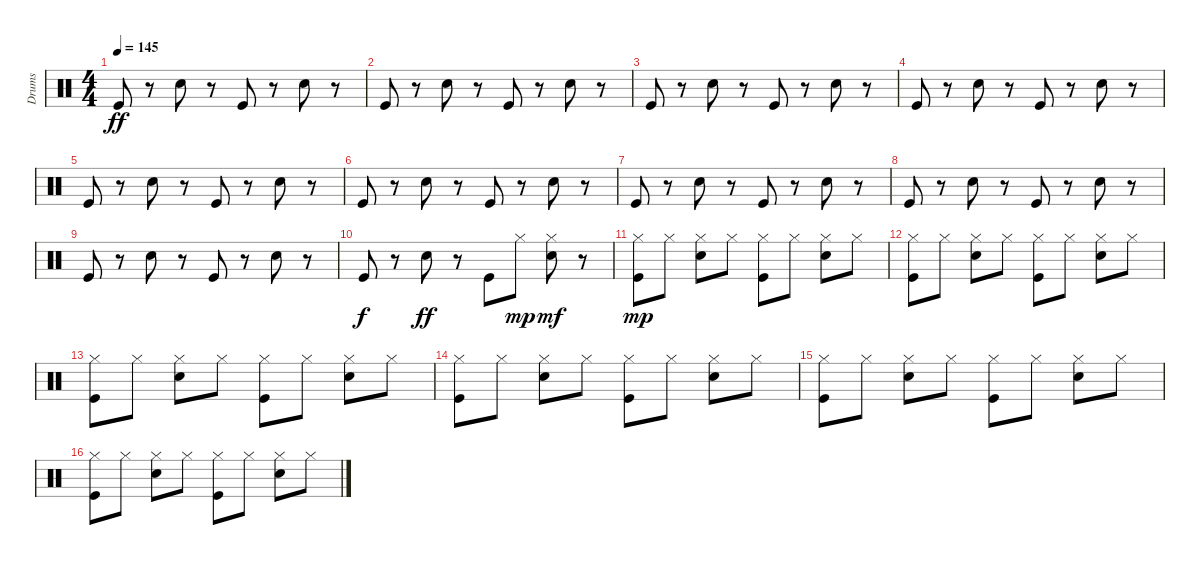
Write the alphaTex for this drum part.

\track ("Drums" "Drums") {instrument percussion}
\staff {score}
\articulation defaults
\ts (4 4)
\tempo 145
\clef neutral
\ks c "Kick (hit)".8{dy ff}
r.8 "Snare (hit) 2".8 r.8 "Kick (hit)".8 r.8 "Snare (hit) 2".8 r.8 |
"Kick (hit)".8 r.8 "Snare (hit) 2".8 r.8 "Kick (hit)".8 r.8 "Snare (hit) 2".8 r.8 |
"Kick (hit)".8 r.8 "Snare (hit) 2".8 r.8 "Kick (hit)".8 r.8 "Snare (hit) 2".8 r.8 |
"Kick (hit)".8 r.8 "Snare (hit) 2".8 r.8 "Kick (hit)".8 r.8 "Snare (hit) 2".8 r.8 |
"Kick (hit)".8 r.8 "Snare (hit) 2".8 r.8 "Kick (hit)".8 r.8 "Snare (hit) 2".8 r.8 |
"Kick (hit)".8 r.8 "Snare (hit) 2".8 r.8 "Kick (hit)".8 r.8 "Snare (hit) 2".8 r.8 |
"Kick (hit)".8 r.8 "Snare (hit) 2".8 r.8 "Kick (hit)".8 r.8 "Snare (hit) 2".8 r.8 |
"Kick (hit)".8 r.8 "Snare (hit) 2".8 r.8 "Kick (hit)".8 r.8 "Snare (hit) 2".8 r.8 |
"Kick (hit)".8 r.8 "Snare (hit) 2".8 r.8 "Kick (hit)".8 r.8 "Snare (hit) 2".8 r.8 |
"Kick (hit)".8{dy f} r.8 "Snare (hit) 2".8{dy ff} r.8 "Kick (hit)".8 "Hi-Hat (closed)".8{dy mp} ("Snare (hit) 2" "Hi-Hat (closed)").8{dy mf} r.8 |
("Kick (hit)" "Hi-Hat (closed)").8{dy mp} "Hi-Hat (closed)".8 ("Snare (hit) 2" "Hi-Hat (closed)").8 "Hi-Hat (closed)".8 ("Kick (hit)" "Hi-Hat (closed)").8 "Hi-Hat (closed)".8 ("Snare (hit) 2" "Hi-Hat (closed)").8 "Hi-Hat (closed)".8 |
("Kick (hit)" "Hi-Hat (closed)").8 "Hi-Hat (closed)".8 ("Snare (hit) 2" "Hi-Hat (closed)").8 "Hi-Hat (closed)".8 ("Kick (hit)" "Hi-Hat (closed)").8 "Hi-Hat (closed)".8 ("Snare (hit) 2" "Hi-Hat (closed)").8 "Hi-Hat (closed)".8 |
("Kick (hit)" "Hi-Hat (closed)").8 "Hi-Hat (closed)".8 ("Snare (hit) 2" "Hi-Hat (closed)").8 "Hi-Hat (closed)".8 ("Kick (hit)" "Hi-Hat (closed)").8 "Hi-Hat (closed)".8 ("Snare (hit) 2" "Hi-Hat (closed)").8 "Hi-Hat (closed)".8 |
("Kick (hit)" "Hi-Hat (closed)").8 "Hi-Hat (closed)".8 ("Snare (hit) 2" "Hi-Hat (closed)").8 "Hi-Hat (closed)".8 ("Kick (hit)" "Hi-Hat (closed)").8 "Hi-Hat (closed)".8 ("Snare (hit) 2" "Hi-Hat (closed)").8 "Hi-Hat (closed)".8 |
("Kick (hit)" "Hi-Hat (closed)").8 "Hi-Hat (closed)".8 ("Snare (hit) 2" "Hi-Hat (closed)").8 "Hi-Hat (closed)".8 ("Kick (hit)" "Hi-Hat (closed)").8 "Hi-Hat (closed)".8 ("Snare (hit) 2" "Hi-Hat (closed)").8 "Hi-Hat (closed)".8 |
("Kick (hit)" "Hi-Hat (closed)").8 "Hi-Hat (closed)".8 ("Snare (hit) 2" "Hi-Hat (closed)").8 "Hi-Hat (closed)".8 ("Kick (hit)" "Hi-Hat (closed)").8 "Hi-Hat (closed)".8 ("Snare (hit) 2" "Hi-Hat (closed)").8 "Hi-Hat (closed)".8
